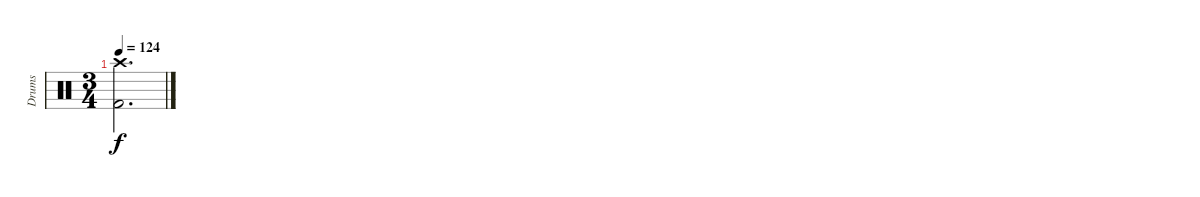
\track ("Drums" "Drums") {instrument percussion}
\staff {score}
\articulation defaults
\ts (3 4)
\tempo 124
\clef neutral
\ks c
("Kick (hit) 2" "Crash high (hit)").2{d dy f}
